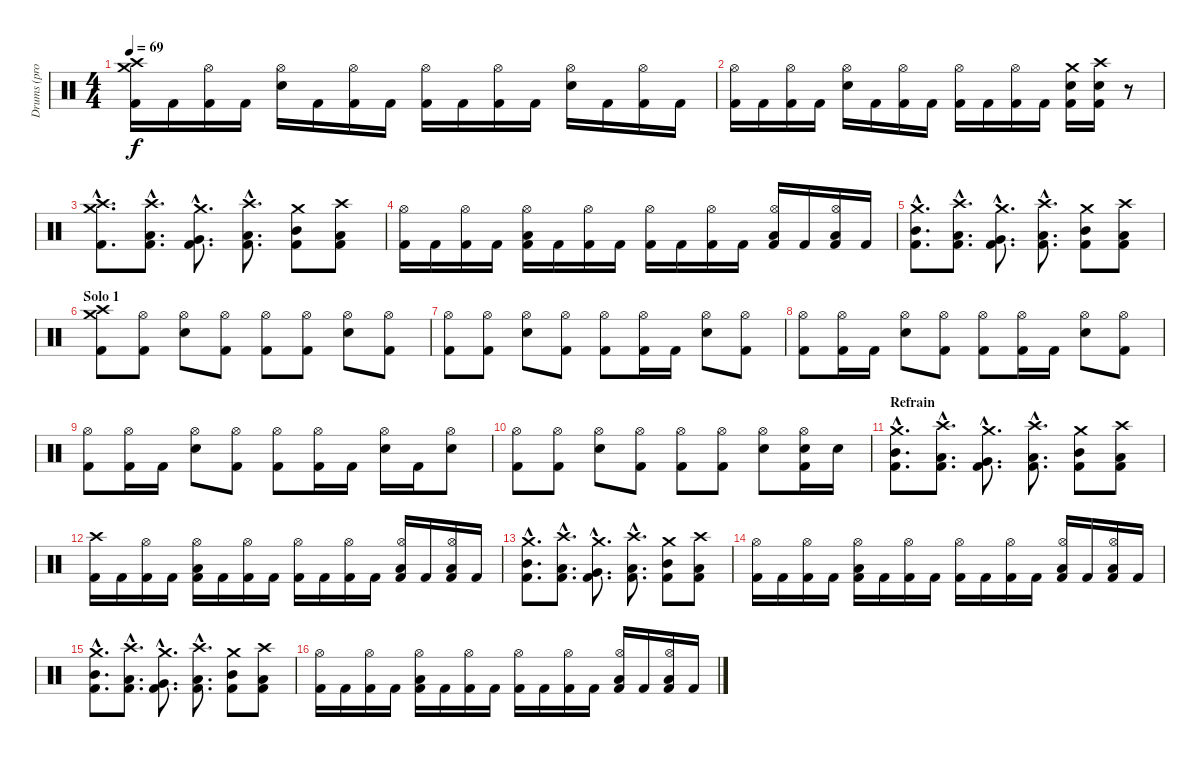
\track ("Drums (proposal JZ)" "Drums (pro") {instrument percussion}
\staff {score}
\articulation defaults
\ts (4 4)
\tempo 69
\clef neutral
\ks c
("Crash medium (hit)" "Crash high (hit)" "Kick (hit) 2").16{dy f} "Kick (hit) 2".16 ("Hi-Hat (open)" "Kick (hit) 2").16 "Kick (hit) 2".16 ("Hi-Hat (open)" "Electric Snare (hit)").16 "Kick (hit) 2".16 ("Hi-Hat (open)" "Kick (hit) 2").16 "Kick (hit) 2".16 ("Hi-Hat (open)" "Kick (hit) 2").16 "Kick (hit) 2".16 ("Hi-Hat (open)" "Kick (hit) 2").16 "Kick (hit) 2".16 ("Hi-Hat (open)" "Electric Snare (hit)").16 "Kick (hit) 2".16 ("Hi-Hat (open)" "Kick (hit) 2").16 "Kick (hit) 2".16 |
("Hi-Hat (open)" "Kick (hit) 2").16 "Kick (hit) 2".16 ("Hi-Hat (open)" "Kick (hit) 2").16 "Kick (hit) 2".16 ("Hi-Hat (open)" "Electric Snare (hit)").16 "Kick (hit) 2".16 ("Hi-Hat (open)" "Kick (hit) 2").16 "Kick (hit) 2".16 ("Hi-Hat (open)" "Kick (hit) 2").16 "Kick (hit) 2".16 ("Hi-Hat (open)" "Kick (hit) 2").16 "Kick (hit) 2".16 ("Crash medium (hit)" "Electric Snare (hit)" "Kick (hit) 2").16 ("Crash high (hit)" "Electric Snare (hit)" "Kick (hit) 2").16 r.8 |
("Crash medium (hit)"{hac} "Crash high (hit)"{hac} "Kick (hit) 2"{hac}).8{d} ("Crash high (hit)"{hac} "Low Tom (hit)"{hac} "Kick (hit) 2"{hac}).8{d} ("Crash medium (hit)"{hac} "Very Low Tom (hit)"{hac} "Kick (hit) 2"{hac}).8{d} ("Crash high (hit)"{hac} "Low Tom (hit)"{hac} "Kick (hit) 2"{hac}).8{d} ("Crash medium (hit)" "Mid Tom (hit)" "Kick (hit) 2").8 ("Crash high (hit)" "Low Tom (hit)" "Kick (hit) 2").8 |
("Hi-Hat (open)" "Kick (hit) 2").16 "Kick (hit) 2".16 ("Hi-Hat (open)" "Kick (hit) 2").16 "Kick (hit) 2".16 ("Hi-Hat (open)" "Low Tom (hit)" "Kick (hit) 2").16 "Kick (hit) 2".16 ("Hi-Hat (open)" "Kick (hit) 2").16 "Kick (hit) 2".16 ("Hi-Hat (open)" "Kick (hit) 2").16 "Kick (hit) 2".16 ("Hi-Hat (open)" "Kick (hit) 2").16 "Kick (hit) 2".16 ("Hi-Hat (open)" "Low Tom (hit)" "Kick (hit) 2").16 "Kick (hit) 2".16 ("Hi-Hat (open)" "Low Tom (hit)" "Kick (hit) 2").16 "Kick (hit) 2".16 |
("Crash medium (hit)"{hac} "Mid Tom (hit)"{hac} "Kick (hit) 2"{hac}).8{d} ("Crash high (hit)"{hac} "Low Tom (hit)"{hac} "Kick (hit) 2"{hac}).8{d} ("Crash medium (hit)"{hac} "Very Low Tom (hit)"{hac} "Kick (hit) 2"{hac}).8{d} ("Crash high (hit)"{hac} "Low Tom (hit)"{hac} "Kick (hit) 2"{hac}).8{d} ("Crash medium (hit)" "Mid Tom (hit)" "Kick (hit) 2").8 ("Crash high (hit)" "Low Tom (hit)" "Kick (hit) 2").8 |
\section ("" "Solo 1")
("Crash medium (hit)" "Crash high (hit)" "Kick (hit) 2").8 ("Hi-Hat (open)" "Kick (hit) 2").8 ("Hi-Hat (open)" "Electric Snare (hit)").8 ("Hi-Hat (open)" "Kick (hit) 2").8 ("Hi-Hat (open)" "Kick (hit) 2").8 ("Hi-Hat (open)" "Kick (hit) 2").8 ("Hi-Hat (open)" "Electric Snare (hit)").8 ("Hi-Hat (open)" "Kick (hit) 2").8 |
("Hi-Hat (open)" "Kick (hit) 2").8 ("Hi-Hat (open)" "Kick (hit) 2").8 ("Hi-Hat (open)" "Electric Snare (hit)").8 ("Hi-Hat (open)" "Kick (hit) 2").8 ("Hi-Hat (open)" "Kick (hit) 2").8 ("Hi-Hat (open)" "Kick (hit) 2").16 "Kick (hit) 2".16 ("Hi-Hat (open)" "Electric Snare (hit)").8 ("Hi-Hat (open)" "Kick (hit) 2").8 |
("Hi-Hat (open)" "Kick (hit) 2").8 ("Hi-Hat (open)" "Kick (hit) 2").16 "Kick (hit) 2".16 ("Hi-Hat (open)" "Electric Snare (hit)").8 ("Hi-Hat (open)" "Kick (hit) 2").8 ("Hi-Hat (open)" "Kick (hit) 2").8 ("Hi-Hat (open)" "Kick (hit) 2").16 "Kick (hit) 2".16 ("Hi-Hat (open)" "Electric Snare (hit)").8 ("Hi-Hat (open)" "Kick (hit) 2").8 |
("Hi-Hat (open)" "Kick (hit) 2").8 ("Hi-Hat (open)" "Kick (hit) 2").16 "Kick (hit) 2".16 ("Hi-Hat (open)" "Electric Snare (hit)").8 ("Hi-Hat (open)" "Kick (hit) 2").8 ("Hi-Hat (open)" "Kick (hit) 2").8 ("Hi-Hat (open)" "Kick (hit) 2").16 "Kick (hit) 2".16 ("Hi-Hat (open)" "Electric Snare (hit)").16 "Kick (hit) 2".16 ("Hi-Hat (open)" "Electric Snare (hit)").8 |
("Hi-Hat (open)" "Kick (hit) 2").8 ("Hi-Hat (open)" "Kick (hit) 2").8 ("Hi-Hat (open)" "Electric Snare (hit)").8 ("Hi-Hat (open)" "Kick (hit) 2").8 ("Hi-Hat (open)" "Kick (hit) 2").8 ("Hi-Hat (open)" "Kick (hit) 2").8 ("Hi-Hat (open)" "Electric Snare (hit)").8 ("Hi-Hat (open)" "Electric Snare (hit)" "Kick (hit) 2").16 "Electric Snare (hit)".16 |
\section ("" "Refrain")
("Crash medium (hit)"{hac} "Mid Tom (hit)"{hac} "Kick (hit) 2"{hac}).8{d} ("Crash high (hit)"{hac} "Low Tom (hit)"{hac} "Kick (hit) 2"{hac}).8{d} ("Crash medium (hit)"{hac} "Very Low Tom (hit)"{hac} "Kick (hit) 2"{hac}).8{d} ("Crash high (hit)"{hac} "Low Tom (hit)"{hac} "Kick (hit) 2"{hac}).8{d} ("Crash medium (hit)" "Mid Tom (hit)" "Kick (hit) 2").8 ("Crash high (hit)" "Low Tom (hit)" "Kick (hit) 2").8 |
("Crash high (hit)" "Kick (hit) 2").16 "Kick (hit) 2".16 ("Hi-Hat (open)" "Kick (hit) 2").16 "Kick (hit) 2".16 ("Hi-Hat (open)" "Low Tom (hit)" "Kick (hit) 2").16 "Kick (hit) 2".16 ("Hi-Hat (open)" "Kick (hit) 2").16 "Kick (hit) 2".16 ("Hi-Hat (open)" "Kick (hit) 2").16 "Kick (hit) 2".16 ("Hi-Hat (open)" "Kick (hit) 2").16 "Kick (hit) 2".16 ("Hi-Hat (open)" "Low Tom (hit)" "Kick (hit) 2").16 "Kick (hit) 2".16 ("Hi-Hat (open)" "Low Tom (hit)" "Kick (hit) 2").16 "Kick (hit) 2".16 |
("Crash medium (hit)"{hac} "Mid Tom (hit)"{hac} "Kick (hit) 2"{hac}).8{d} ("Crash high (hit)"{hac} "Low Tom (hit)"{hac} "Kick (hit) 2"{hac}).8{d} ("Crash medium (hit)"{hac} "Very Low Tom (hit)"{hac} "Kick (hit) 2"{hac}).8{d} ("Crash high (hit)"{hac} "Low Tom (hit)"{hac} "Kick (hit) 2"{hac}).8{d} ("Crash medium (hit)" "Mid Tom (hit)" "Kick (hit) 2").8 ("Crash high (hit)" "Low Tom (hit)" "Kick (hit) 2").8 |
("Hi-Hat (open)" "Kick (hit) 2").16 "Kick (hit) 2".16 ("Hi-Hat (open)" "Kick (hit) 2").16 "Kick (hit) 2".16 ("Hi-Hat (open)" "Low Tom (hit)" "Kick (hit) 2").16 "Kick (hit) 2".16 ("Hi-Hat (open)" "Kick (hit) 2").16 "Kick (hit) 2".16 ("Hi-Hat (open)" "Kick (hit) 2").16 "Kick (hit) 2".16 ("Hi-Hat (open)" "Kick (hit) 2").16 "Kick (hit) 2".16 ("Hi-Hat (open)" "Low Tom (hit)" "Kick (hit) 2").16 "Kick (hit) 2".16 ("Hi-Hat (open)" "Low Tom (hit)" "Kick (hit) 2").16 "Kick (hit) 2".16 |
("Crash medium (hit)"{hac} "Mid Tom (hit)"{hac} "Kick (hit) 2"{hac}).8{d} ("Crash high (hit)"{hac} "Low Tom (hit)"{hac} "Kick (hit) 2"{hac}).8{d} ("Crash medium (hit)"{hac} "Very Low Tom (hit)"{hac} "Kick (hit) 2"{hac}).8{d} ("Crash high (hit)"{hac} "Low Tom (hit)"{hac} "Kick (hit) 2"{hac}).8{d} ("Crash medium (hit)" "Mid Tom (hit)" "Kick (hit) 2").8 ("Crash high (hit)" "Low Tom (hit)" "Kick (hit) 2").8 |
("Hi-Hat (open)" "Kick (hit) 2").16 "Kick (hit) 2".16 ("Hi-Hat (open)" "Kick (hit) 2").16 "Kick (hit) 2".16 ("Hi-Hat (open)" "Low Tom (hit)" "Kick (hit) 2").16 "Kick (hit) 2".16 ("Hi-Hat (open)" "Kick (hit) 2").16 "Kick (hit) 2".16 ("Hi-Hat (open)" "Kick (hit) 2").16 "Kick (hit) 2".16 ("Hi-Hat (open)" "Kick (hit) 2").16 "Kick (hit) 2".16 ("Hi-Hat (open)" "Low Tom (hit)" "Kick (hit) 2").16 "Kick (hit) 2".16 ("Hi-Hat (open)" "Low Tom (hit)" "Kick (hit) 2").16 "Kick (hit) 2".16
